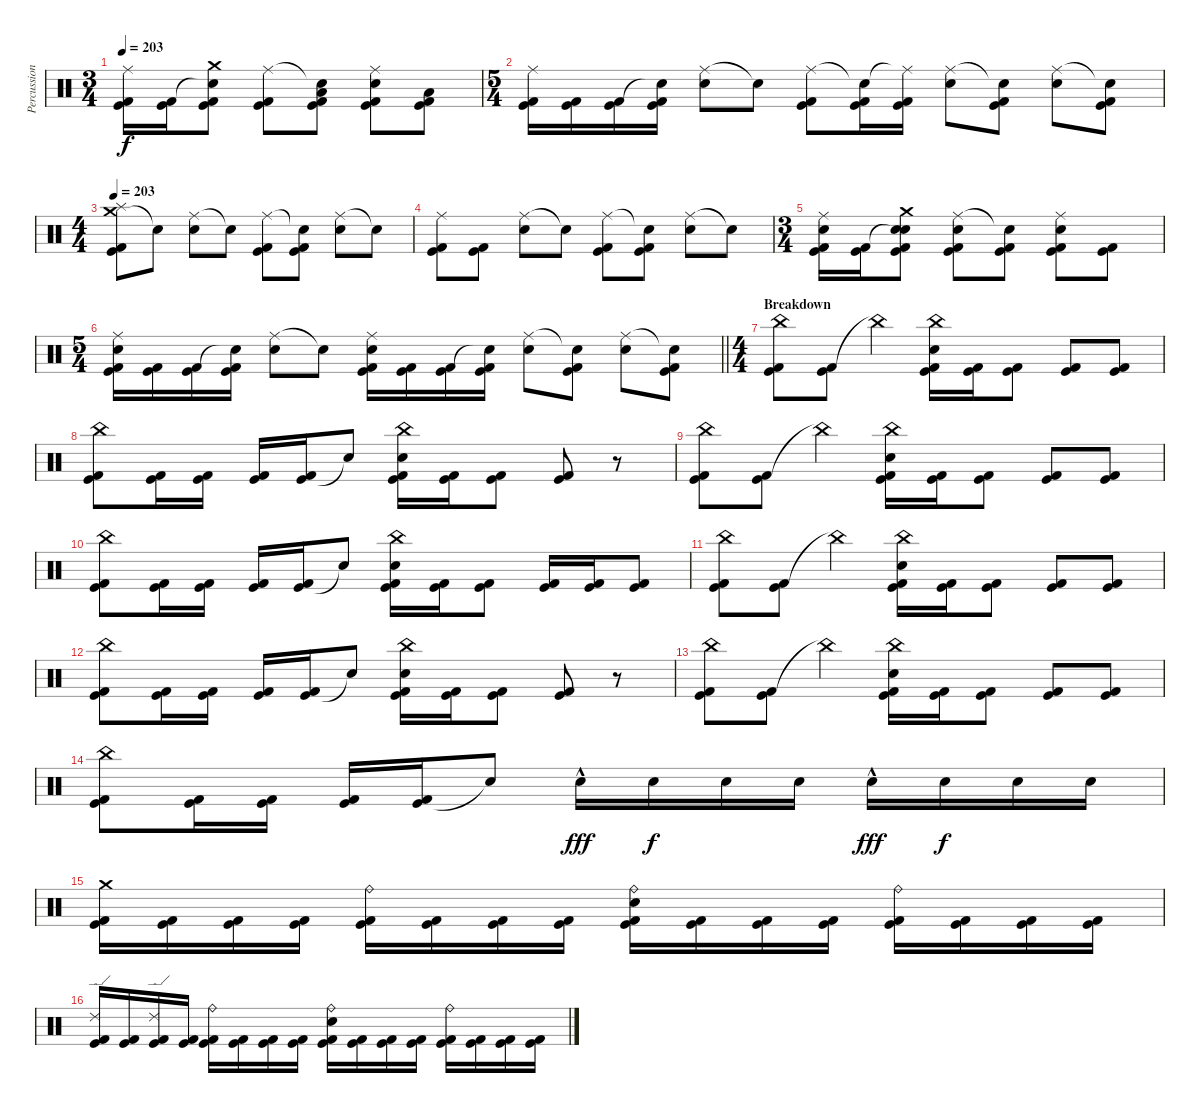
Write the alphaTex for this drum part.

\track ("Percussion" "Percussion") {instrument percussion}
\staff {score}
\articulation defaults
\ts (3 4)
\tempo 203
\clef neutral
\ks c
("Ride (middle)" "Kick (hit)" "Kick (hit) 2").16{dy f} ("Kick (hit)" "Kick (hit) 2").16 ("Crash medium (hit)" "Snare (hit)"{t} "Kick (hit)" "Kick (hit) 2").8 ("Ride (middle)" "Kick (hit)" "Kick (hit) 2").8 ("Snare (hit)"{t} "Low Floor Tom (hit)" "Kick (hit)" "Kick (hit) 2").8 ("Ride (middle)" "Electric Snare (hit)" "Kick (hit)" "Kick (hit) 2").8 ("Low Floor Tom (hit)" "Kick (hit)" "Kick (hit) 2").8 |
\ts (5 4)
("Ride (middle)" "Kick (hit)" "Kick (hit) 2").16 ("Kick (hit)" "Kick (hit) 2").16 ("Kick (hit)" "Kick (hit) 2").16 ("Snare (hit)"{t} "Kick (hit)" "Kick (hit) 2").16 ("Ride (middle)" "Electric Snare (hit)").8 "Snare (hit)"{t}.8 ("Ride (middle)" "Kick (hit)" "Kick (hit) 2").8 ("Snare (hit)"{t} "Kick (hit)" "Kick (hit) 2").16 ("Ride (middle)"{t} "Kick (hit)" "Kick (hit) 2").16 ("Ride (middle)" "Electric Snare (hit)").8 ("Snare (hit)"{t} "Kick (hit)" "Kick (hit) 2").8 ("Ride (middle)" "Electric Snare (hit)").8 ("Snare (hit)"{t} "Kick (hit)" "Kick (hit) 2").8 |
\ts (4 4)
\tempo 203
("Crash medium (hit)" "Splash (hit)" "Kick (hit)" "Kick (hit) 2").8 "Snare (hit)"{t}.8 ("Ride (middle)" "Electric Snare (hit)").8 "Snare (hit)"{t}.8 ("Ride (middle)" "Kick (hit)" "Kick (hit) 2").8 ("Snare (hit)"{t} "Kick (hit)" "Kick (hit) 2").8 ("Ride (middle)" "Electric Snare (hit)").8 "Snare (hit)"{t}.8 |
("Ride (middle)" "Kick (hit)" "Kick (hit) 2").8 ("Kick (hit)" "Kick (hit) 2").8 ("Ride (middle)" "Electric Snare (hit)").8 "Snare (hit)"{t}.8 ("Ride (middle)" "Kick (hit)" "Kick (hit) 2").8 ("Snare (hit)"{t} "Kick (hit)" "Kick (hit) 2").8 ("Ride (middle)" "Electric Snare (hit)").8 "Snare (hit)"{t}.8 |
\ts (3 4)
("Ride (middle)" "Electric Snare (hit)" "Kick (hit)" "Kick (hit) 2").16 ("Kick (hit)" "Kick (hit) 2").16 ("Crash medium (hit)" "Snare (hit)"{t} "Electric Snare (hit)" "Kick (hit)" "Kick (hit) 2").8 ("Ride (middle)" "Electric Snare (hit)" "Kick (hit)" "Kick (hit) 2").8 ("Snare (hit)"{t} "Kick (hit)" "Kick (hit) 2").8 ("Ride (middle)" "Electric Snare (hit)" "Kick (hit)" "Kick (hit) 2").8 ("Kick (hit)" "Kick (hit) 2").8 |
\ts (5 4)
\barLineRight lightlight
("Ride (middle)" "Electric Snare (hit)" "Kick (hit)" "Kick (hit) 2").16 ("Kick (hit)" "Kick (hit) 2").16 ("Kick (hit)" "Kick (hit) 2").16 ("Snare (hit)"{t} "Kick (hit)" "Kick (hit) 2").16 ("Ride (middle)" "Electric Snare (hit)").8 "Snare (hit)"{t}.8 ("Ride (middle)" "Electric Snare (hit)" "Kick (hit)" "Kick (hit) 2").16 ("Kick (hit)" "Kick (hit) 2").16 ("Kick (hit)" "Kick (hit) 2").16 ("Snare (hit)"{t} "Kick (hit)" "Kick (hit) 2").16 ("Ride (middle)" "Electric Snare (hit)").8 ("Snare (hit)"{t} "Kick (hit)" "Kick (hit) 2").8 ("Ride (middle)" "Electric Snare (hit)").8 ("Snare (hit)"{t} "Kick (hit)" "Kick (hit) 2").8 |
\ts (4 4)
\section ("" "Breakdown")
("China (hit)" "Kick (hit)" "Kick (hit) 2").8 ("Kick (hit)" "Kick (hit) 2").8 "China (hit)"{t}.4 ("China (hit)" "Electric Snare (hit)" "Kick (hit)" "Kick (hit) 2").16 ("Kick (hit)" "Kick (hit) 2").16 ("Kick (hit)" "Kick (hit) 2").8 ("Kick (hit)" "Kick (hit) 2").8 ("Kick (hit)" "Kick (hit) 2").8 |
("China (hit)" "Kick (hit)" "Kick (hit) 2").8 ("Kick (hit)" "Kick (hit) 2").16 ("Kick (hit)" "Kick (hit) 2").16 ("Kick (hit)" "Kick (hit) 2").16 ("Kick (hit)" "Kick (hit) 2").16 "Snare (hit)"{t}.8 ("China (hit)" "Electric Snare (hit)" "Kick (hit)" "Kick (hit) 2").16 ("Kick (hit)" "Kick (hit) 2").16 ("Kick (hit)" "Kick (hit) 2").8 ("Kick (hit)" "Kick (hit) 2").8 r.8 |
("China (hit)" "Kick (hit)" "Kick (hit) 2").8 ("Kick (hit)" "Kick (hit) 2").8 "China (hit)"{t}.4 ("China (hit)" "Electric Snare (hit)" "Kick (hit)" "Kick (hit) 2").16 ("Kick (hit)" "Kick (hit) 2").16 ("Kick (hit)" "Kick (hit) 2").8 ("Kick (hit)" "Kick (hit) 2").8 ("Kick (hit)" "Kick (hit) 2").8 |
("China (hit)" "Kick (hit)" "Kick (hit) 2").8 ("Kick (hit)" "Kick (hit) 2").16 ("Kick (hit)" "Kick (hit) 2").16 ("Kick (hit)" "Kick (hit) 2").16 ("Kick (hit)" "Kick (hit) 2").16 "Snare (hit)"{t}.8 ("China (hit)" "Electric Snare (hit)" "Kick (hit)" "Kick (hit) 2").16 ("Kick (hit)" "Kick (hit) 2").16 ("Kick (hit)" "Kick (hit) 2").8 ("Kick (hit)" "Kick (hit) 2").16 ("Kick (hit)" "Kick (hit) 2").16 ("Kick (hit)" "Kick (hit) 2").8 |
("China (hit)" "Kick (hit)" "Kick (hit) 2").8 ("Kick (hit)" "Kick (hit) 2").8 "China (hit)"{t}.4 ("China (hit)" "Electric Snare (hit)" "Kick (hit)" "Kick (hit) 2").16 ("Kick (hit)" "Kick (hit) 2").16 ("Kick (hit)" "Kick (hit) 2").8 ("Kick (hit)" "Kick (hit) 2").8 ("Kick (hit)" "Kick (hit) 2").8 |
("China (hit)" "Kick (hit)" "Kick (hit) 2").8 ("Kick (hit)" "Kick (hit) 2").16 ("Kick (hit)" "Kick (hit) 2").16 ("Kick (hit)" "Kick (hit) 2").16 ("Kick (hit)" "Kick (hit) 2").16 "Snare (hit)"{t}.8 ("China (hit)" "Electric Snare (hit)" "Kick (hit)" "Kick (hit) 2").16 ("Kick (hit)" "Kick (hit) 2").16 ("Kick (hit)" "Kick (hit) 2").8 ("Kick (hit)" "Kick (hit) 2").8 r.8 |
("China (hit)" "Kick (hit)" "Kick (hit) 2").8 ("Kick (hit)" "Kick (hit) 2").8 "China (hit)"{t}.4 ("China (hit)" "Electric Snare (hit)" "Kick (hit)" "Kick (hit) 2").16 ("Kick (hit)" "Kick (hit) 2").16 ("Kick (hit)" "Kick (hit) 2").8 ("Kick (hit)" "Kick (hit) 2").8 ("Kick (hit)" "Kick (hit) 2").8 |
("China (hit)" "Kick (hit)" "Kick (hit) 2").8 ("Kick (hit)" "Kick (hit) 2").16 ("Kick (hit)" "Kick (hit) 2").16 ("Kick (hit)" "Kick (hit) 2").16 ("Kick (hit)" "Kick (hit) 2").16 "Snare (hit)"{t}.8 "Electric Snare (hit)"{hac}.16{dy fff} "Electric Snare (hit)".16{dy f} "Electric Snare (hit)".16 "Electric Snare (hit)".16 "Electric Snare (hit)"{hac}.16{dy fff} "Electric Snare (hit)".16{dy f} "Electric Snare (hit)".16 "Electric Snare (hit)".16 |
("Crash medium (hit)" "Kick (hit)" "Kick (hit) 2").16 ("Kick (hit)" "Kick (hit) 2").16 ("Kick (hit)" "Kick (hit) 2").16 ("Kick (hit)" "Kick (hit) 2").16 ("Ride (bell)" "Kick (hit)" "Kick (hit) 2").16 ("Kick (hit)" "Kick (hit) 2").16 ("Kick (hit)" "Kick (hit) 2").16 ("Kick (hit)" "Kick (hit) 2").16 ("Ride (bell)" "Electric Snare (hit)" "Kick (hit)" "Kick (hit) 2").16 ("Kick (hit)" "Kick (hit) 2").16 ("Kick (hit)" "Kick (hit) 2").16 ("Kick (hit)" "Kick (hit) 2").16 ("Ride (bell)" "Kick (hit)" "Kick (hit) 2").16 ("Kick (hit)" "Kick (hit) 2").16 ("Kick (hit)" "Kick (hit) 2").16 ("Kick (hit)" "Kick (hit) 2").16 |
("Ride (edge) 2" "Kick (hit)" "Kick (hit) 2").16 ("Kick (hit)" "Kick (hit) 2").16 ("Ride (edge) 2" "Kick (hit)" "Kick (hit) 2").16 ("Kick (hit)" "Kick (hit) 2").16 ("Ride (bell)" "Kick (hit)" "Kick (hit) 2").16 ("Kick (hit)" "Kick (hit) 2").16 ("Kick (hit)" "Kick (hit) 2").16 ("Kick (hit)" "Kick (hit) 2").16 ("Ride (bell)" "Electric Snare (hit)" "Kick (hit)" "Kick (hit) 2").16 ("Kick (hit)" "Kick (hit) 2").16 ("Kick (hit)" "Kick (hit) 2").16 ("Kick (hit)" "Kick (hit) 2").16 ("Ride (bell)" "Kick (hit)" "Kick (hit) 2").16 ("Kick (hit)" "Kick (hit) 2").16 ("Kick (hit)" "Kick (hit) 2").16 ("Kick (hit)" "Kick (hit) 2").16
